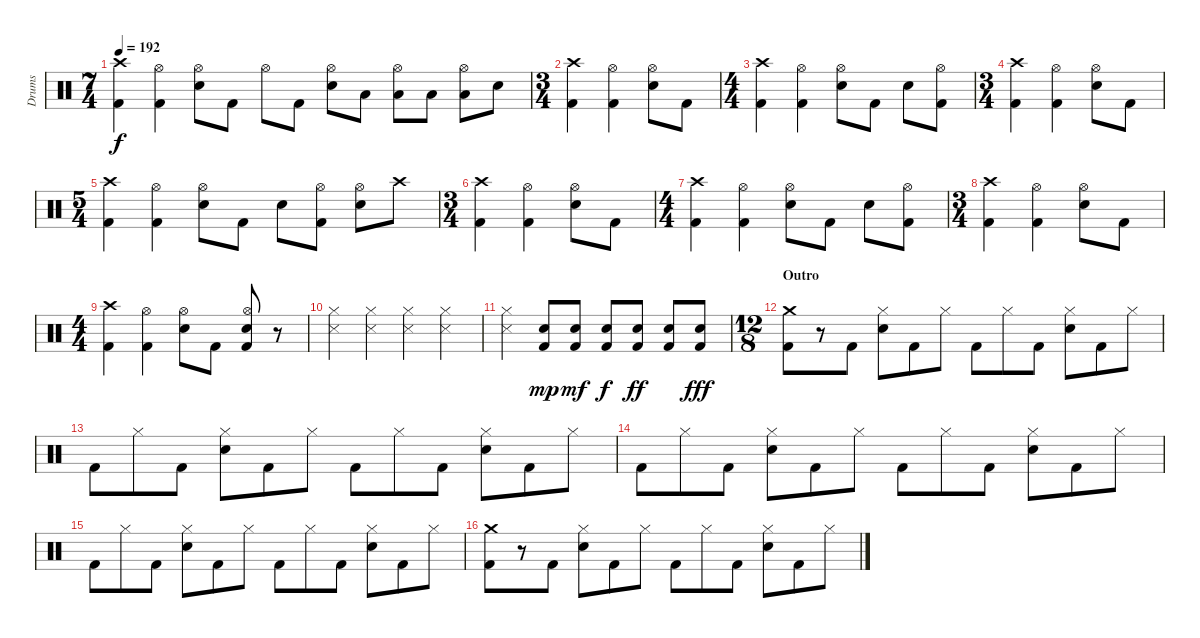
\track ("Drums" "Drums") {instrument percussion}
\staff {score}
\articulation defaults
\ts (7 4)
\tempo 192
\clef neutral
\ks c
("Crash high (hit)" "Kick (hit) 2").4{dy f} ("Hi-Hat (open)" "Kick (hit) 2").4 ("Hi-Hat (open)" "Snare (hit) 2").8 "Kick (hit) 2".8 "Hi-Hat (open)".8 "Kick (hit) 2".8 ("Hi-Hat (open)" "Snare (hit) 2").8 "Low Tom (hit)".8 ("Hi-Hat (open)" "Low Tom (hit)").8 "Low Tom (hit)".8 ("Hi-Hat (open)" "Low Tom (hit)").8 "Snare (hit) 2".8 |
\ts (3 4)
("Crash high (hit)" "Kick (hit) 2").4 ("Hi-Hat (open)" "Kick (hit) 2").4 ("Hi-Hat (open)" "Snare (hit) 2").8 "Kick (hit) 2".8 |
\ts (4 4)
("Crash high (hit)" "Kick (hit) 2").4 ("Hi-Hat (open)" "Kick (hit) 2").4 ("Hi-Hat (open)" "Snare (hit) 2").8 "Kick (hit) 2".8 "Snare (hit) 2".8 ("Hi-Hat (open)" "Kick (hit) 2").8 |
\ts (3 4)
("Crash high (hit)" "Kick (hit) 2").4 ("Hi-Hat (open)" "Kick (hit) 2").4 ("Hi-Hat (open)" "Snare (hit) 2").8 "Kick (hit) 2".8 |
\ts (5 4)
("Crash high (hit)" "Kick (hit) 2").4 ("Hi-Hat (open)" "Kick (hit) 2").4 ("Hi-Hat (open)" "Snare (hit) 2").8 "Kick (hit) 2".8 "Snare (hit) 2".8 ("Hi-Hat (open)" "Kick (hit) 2").8 ("Hi-Hat (open)" "Snare (hit) 2").8 "Crash high (hit)".8 |
\ts (3 4)
("Crash high (hit)" "Kick (hit) 2").4 ("Hi-Hat (open)" "Kick (hit) 2").4 ("Hi-Hat (open)" "Snare (hit) 2").8 "Kick (hit) 2".8 |
\ts (4 4)
("Crash high (hit)" "Kick (hit) 2").4 ("Hi-Hat (open)" "Kick (hit) 2").4 ("Hi-Hat (open)" "Snare (hit) 2").8 "Kick (hit) 2".8 "Snare (hit) 2".8 ("Hi-Hat (open)" "Kick (hit) 2").8 |
\ts (3 4)
("Crash high (hit)" "Kick (hit) 2").4 ("Hi-Hat (open)" "Kick (hit) 2").4 ("Hi-Hat (open)" "Snare (hit) 2").8 "Kick (hit) 2".8 |
\ts (4 4)
("Crash high (hit)" "Kick (hit) 2").4 ("Hi-Hat (open)" "Kick (hit) 2").4 ("Hi-Hat (open)" "Snare (hit) 2").8 "Kick (hit) 2".8 ("Hi-Hat (open)" "Snare (hit) 2" "Kick (hit) 2").8 r.8 |
("Snare (side stick) 3" "Hi-Hat (closed)").4 ("Snare (side stick) 3" "Hi-Hat (closed)").4 ("Snare (side stick) 3" "Hi-Hat (closed)").4 ("Snare (side stick) 3" "Hi-Hat (closed)").4 |
("Snare (side stick) 3" "Hi-Hat (closed)").4 ("Snare (hit) 2" "Kick (hit) 2").8{dy mp} ("Snare (hit) 2" "Kick (hit) 2").8{dy mf} ("Snare (hit) 2" "Kick (hit) 2").8{dy f} ("Snare (hit) 2" "Kick (hit) 2").8{dy ff} ("Snare (hit) 2" "Kick (hit) 2").8 ("Snare (hit) 2" "Kick (hit) 2").8{dy fff} |
\ts (12 8)
\section ("" "Outro")
("Crash medium (hit)" "Kick (hit) 2").8 r.8 "Kick (hit) 2".8 ("Hi-Hat (closed)" "Electric Snare (hit)").8 "Kick (hit) 2".8 "Hi-Hat (closed)".8 "Kick (hit) 2".8 "Hi-Hat (closed)".8 "Kick (hit) 2".8 ("Hi-Hat (closed)" "Electric Snare (hit)").8 "Kick (hit) 2".8 "Hi-Hat (closed)".8 |
"Kick (hit) 2".8 "Hi-Hat (closed)".8 "Kick (hit) 2".8 ("Hi-Hat (closed)" "Electric Snare (hit)").8 "Kick (hit) 2".8 "Hi-Hat (closed)".8 "Kick (hit) 2".8 "Hi-Hat (closed)".8 "Kick (hit) 2".8 ("Hi-Hat (closed)" "Electric Snare (hit)").8 "Kick (hit) 2".8 "Hi-Hat (closed)".8 |
"Kick (hit) 2".8 "Hi-Hat (closed)".8 "Kick (hit) 2".8 ("Hi-Hat (closed)" "Electric Snare (hit)").8 "Kick (hit) 2".8 "Hi-Hat (closed)".8 "Kick (hit) 2".8 "Hi-Hat (closed)".8 "Kick (hit) 2".8 ("Hi-Hat (closed)" "Electric Snare (hit)").8 "Kick (hit) 2".8 "Hi-Hat (closed)".8 |
"Kick (hit) 2".8 "Hi-Hat (closed)".8 "Kick (hit) 2".8 ("Hi-Hat (closed)" "Electric Snare (hit)").8 "Kick (hit) 2".8 "Hi-Hat (closed)".8 "Kick (hit) 2".8 "Hi-Hat (closed)".8 "Kick (hit) 2".8 ("Hi-Hat (closed)" "Electric Snare (hit)").8 "Kick (hit) 2".8 "Hi-Hat (closed)".8 |
("Crash medium (hit)" "Kick (hit) 2").8 r.8 "Kick (hit) 2".8 ("Hi-Hat (closed)" "Electric Snare (hit)").8 "Kick (hit) 2".8 "Hi-Hat (closed)".8 "Kick (hit) 2".8 "Hi-Hat (closed)".8 "Kick (hit) 2".8 ("Hi-Hat (closed)" "Electric Snare (hit)").8 "Kick (hit) 2".8 "Hi-Hat (closed)".8
